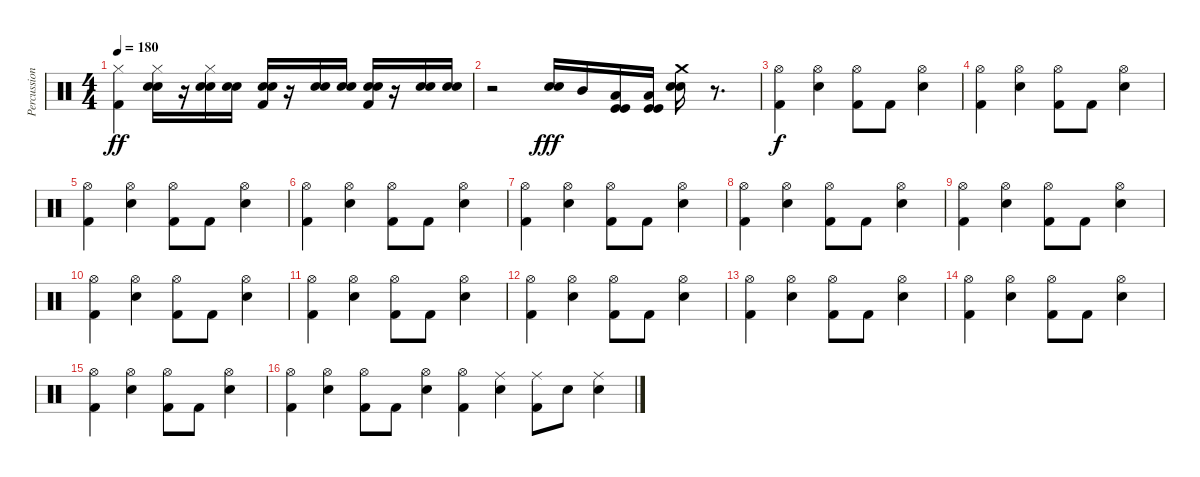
\track ("Percussion" "Percussion") {instrument percussion}
\staff {score}
\articulation defaults
\ts (4 4)
\tempo 180
\clef neutral
\ks c
("Hi-Hat (closed)" "Kick (hit) 2").4{dy ff} ("Hi-Hat (closed)" "Electric Snare (hit)" "Snare (hit) 2").16 r.16 ("Hi-Hat (closed)" "Electric Snare (hit)" "Snare (hit) 2").16 ("Electric Snare (hit)" "Snare (hit) 2").16 ("Electric Snare (hit)" "Snare (hit) 2" "Kick (hit) 2").16 r.16 ("Electric Snare (hit)" "Snare (hit) 2").16 ("Electric Snare (hit)" "Snare (hit) 2").16 ("Electric Snare (hit)" "Snare (hit) 2" "Kick (hit) 2").16 r.16 ("Electric Snare (hit)" "Snare (hit) 2").16 ("Electric Snare (hit)" "Snare (hit) 2").16 |
r.2 ("Electric Snare (hit)" "Snare (hit) 2").16{dy fff} "Mid Tom (hit)".16 ("Low Tom (hit)" "Kick (hit)" "Kick (hit)").16 ("Low Tom (hit)" "Kick (hit)" "Kick (hit)").16 ("Crash medium (hit)" "Electric Snare (hit)" "Snare (hit) 2").16 r.8{d} |
("Hi-Hat (open)" "Kick (hit) 2").4{dy f} ("Hi-Hat (open)" "Electric Snare (hit)").4 ("Hi-Hat (open)" "Kick (hit) 2").8 "Kick (hit) 2".8 ("Hi-Hat (open)" "Electric Snare (hit)").4 |
("Hi-Hat (open)" "Kick (hit) 2").4 ("Hi-Hat (open)" "Electric Snare (hit)").4 ("Hi-Hat (open)" "Kick (hit) 2").8 "Kick (hit) 2".8 ("Hi-Hat (open)" "Electric Snare (hit)").4 |
("Hi-Hat (open)" "Kick (hit) 2").4 ("Hi-Hat (open)" "Electric Snare (hit)").4 ("Hi-Hat (open)" "Kick (hit) 2").8 "Kick (hit) 2".8 ("Hi-Hat (open)" "Electric Snare (hit)").4 |
("Hi-Hat (open)" "Kick (hit) 2").4 ("Hi-Hat (open)" "Electric Snare (hit)").4 ("Hi-Hat (open)" "Kick (hit) 2").8 "Kick (hit) 2".8 ("Hi-Hat (open)" "Electric Snare (hit)").4 |
("Hi-Hat (open)" "Kick (hit) 2").4 ("Hi-Hat (open)" "Electric Snare (hit)").4 ("Hi-Hat (open)" "Kick (hit) 2").8 "Kick (hit) 2".8 ("Hi-Hat (open)" "Electric Snare (hit)").4 |
("Hi-Hat (open)" "Kick (hit) 2").4 ("Hi-Hat (open)" "Electric Snare (hit)").4 ("Hi-Hat (open)" "Kick (hit) 2").8 "Kick (hit) 2".8 ("Hi-Hat (open)" "Electric Snare (hit)").4 |
("Hi-Hat (open)" "Kick (hit) 2").4 ("Hi-Hat (open)" "Electric Snare (hit)").4 ("Hi-Hat (open)" "Kick (hit) 2").8 "Kick (hit) 2".8 ("Hi-Hat (open)" "Electric Snare (hit)").4 |
("Hi-Hat (open)" "Kick (hit) 2").4 ("Hi-Hat (open)" "Electric Snare (hit)").4 ("Hi-Hat (open)" "Kick (hit) 2").8 "Kick (hit) 2".8 ("Hi-Hat (open)" "Electric Snare (hit)").4 |
("Hi-Hat (open)" "Kick (hit) 2").4 ("Hi-Hat (open)" "Electric Snare (hit)").4 ("Hi-Hat (open)" "Kick (hit) 2").8 "Kick (hit) 2".8 ("Hi-Hat (open)" "Electric Snare (hit)").4 |
("Hi-Hat (open)" "Kick (hit) 2").4 ("Hi-Hat (open)" "Electric Snare (hit)").4 ("Hi-Hat (open)" "Kick (hit) 2").8 "Kick (hit) 2".8 ("Hi-Hat (open)" "Electric Snare (hit)").4 |
("Hi-Hat (open)" "Kick (hit) 2").4 ("Hi-Hat (open)" "Electric Snare (hit)").4 ("Hi-Hat (open)" "Kick (hit) 2").8 "Kick (hit) 2".8 ("Hi-Hat (open)" "Electric Snare (hit)").4 |
("Hi-Hat (open)" "Kick (hit) 2").4 ("Hi-Hat (open)" "Electric Snare (hit)").4 ("Hi-Hat (open)" "Kick (hit) 2").8 "Kick (hit) 2".8 ("Hi-Hat (open)" "Electric Snare (hit)").4 |
("Hi-Hat (open)" "Kick (hit) 2").4 ("Hi-Hat (open)" "Electric Snare (hit)").4 ("Hi-Hat (open)" "Kick (hit) 2").8 "Kick (hit) 2".8 ("Hi-Hat (open)" "Electric Snare (hit)").4 |
("Hi-Hat (open)" "Kick (hit) 2").4 ("Hi-Hat (open)" "Electric Snare (hit)").4 ("Hi-Hat (open)" "Kick (hit) 2").8 "Kick (hit) 2".8 ("Hi-Hat (open)" "Electric Snare (hit)").4 ("Hi-Hat (open)" "Kick (hit) 2").4 ("Ride (middle)" "Electric Snare (hit)").4 ("Ride (middle)" "Kick (hit) 2").8 "Electric Snare (hit)".8 ("Ride (middle)" "Electric Snare (hit)").4
